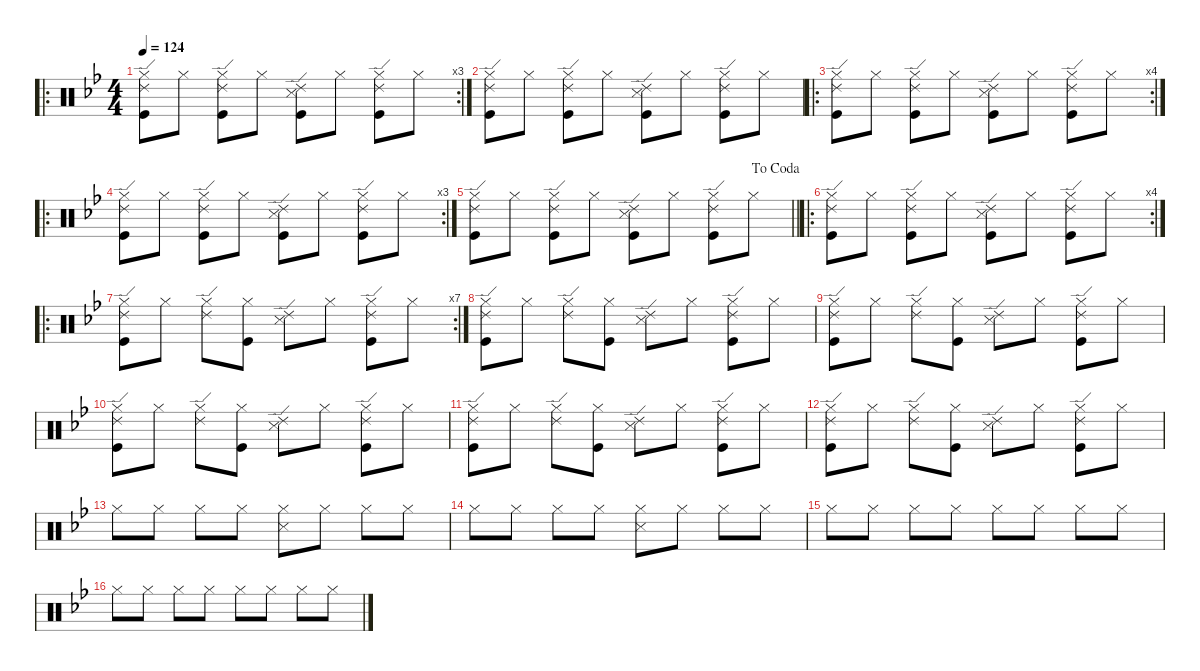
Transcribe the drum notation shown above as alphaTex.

\defaultSystemsLayout 4
\hideDynamics
\bracketExtendMode nobrackets
\singleTrackTrackNamePolicy hidden
\multiTrackTrackNamePolicy hidden
\firstSystemTrackNameMode fullname
\firstSystemTrackNameOrientation horizontal
\otherSystemsTrackNameOrientation horizontal
\track ("Percussion" "drm.") {instrument percussion}
\staff {score}
\articulation defaults
\ro
\rc 3
\ts (4 4)
\tempo 124
\clef neutral
\ks gminor
("Ride (edge) 2"{acc forcenatural} "Hi-Hat (closed)"{acc forcenatural} "Kick (hit)"{acc forcenatural}).8{dy f beam Down} "Hi-Hat (closed)"{acc forcenatural}.8{beam Down} ("Ride (edge) 2"{acc forcenatural} "Hi-Hat (closed)"{acc forcenatural} "Kick (hit)"{acc forcenatural}).8{beam Down} "Hi-Hat (closed)"{acc forcenatural}.8{beam Down} ("Ride (edge) 2"{acc forcenatural} "Snare (side stick) 3"{acc forcenatural} "Kick (hit)"{acc forcenatural}).8{beam Down} "Hi-Hat (closed)"{acc forcenatural}.8{beam Down} ("Ride (edge) 2"{acc forcenatural} "Hi-Hat (closed)"{acc forcenatural} "Kick (hit)"{acc forcenatural}).8{beam Down} "Hi-Hat (closed)"{acc forcenatural}.8{beam Down} |
("Ride (edge) 2"{acc forcenatural} "Hi-Hat (closed)"{acc forcenatural} "Kick (hit)"{acc forcenatural}).8{beam Down} "Hi-Hat (closed)"{acc forcenatural}.8{beam Down} ("Ride (edge) 2"{acc forcenatural} "Hi-Hat (closed)"{acc forcenatural} "Kick (hit)"{acc forcenatural}).8{beam Down} "Hi-Hat (closed)"{acc forcenatural}.8{beam Down} ("Ride (edge) 2"{acc forcenatural} "Snare (side stick) 3"{acc forcenatural} "Kick (hit)"{acc forcenatural}).8{beam Down} "Hi-Hat (closed)"{acc forcenatural}.8{beam Down} ("Ride (edge) 2"{acc forcenatural} "Hi-Hat (closed)"{acc forcenatural} "Kick (hit)"{acc forcenatural}).8{beam Down} "Hi-Hat (closed)"{acc forcenatural}.8{beam Down} |
\ro
\rc 4
("Ride (edge) 2"{acc forcenatural} "Hi-Hat (closed)"{acc forcenatural} "Kick (hit)"{acc forcenatural}).8{beam Down} "Hi-Hat (closed)"{acc forcenatural}.8{beam Down} ("Ride (edge) 2"{acc forcenatural} "Hi-Hat (closed)"{acc forcenatural} "Kick (hit)"{acc forcenatural}).8{beam Down} "Hi-Hat (closed)"{acc forcenatural}.8{beam Down} ("Ride (edge) 2"{acc forcenatural} "Snare (side stick) 3"{acc forcenatural} "Kick (hit)"{acc forcenatural}).8{beam Down} "Hi-Hat (closed)"{acc forcenatural}.8{beam Down} ("Ride (edge) 2"{acc forcenatural} "Hi-Hat (closed)"{acc forcenatural} "Kick (hit)"{acc forcenatural}).8{beam Down} "Hi-Hat (closed)"{acc forcenatural}.8{beam Down} |
\ro
\rc 3
("Ride (edge) 2"{acc forcenatural} "Hi-Hat (closed)"{acc forcenatural} "Kick (hit)"{acc forcenatural}).8{beam Down} "Hi-Hat (closed)"{acc forcenatural}.8{beam Down} ("Ride (edge) 2"{acc forcenatural} "Hi-Hat (closed)"{acc forcenatural} "Kick (hit)"{acc forcenatural}).8{beam Down} "Hi-Hat (closed)"{acc forcenatural}.8{beam Down} ("Ride (edge) 2"{acc forcenatural} "Snare (side stick) 3"{acc forcenatural} "Kick (hit)"{acc forcenatural}).8{beam Down} "Hi-Hat (closed)"{acc forcenatural}.8{beam Down} ("Ride (edge) 2"{acc forcenatural} "Hi-Hat (closed)"{acc forcenatural} "Kick (hit)"{acc forcenatural}).8{beam Down} "Hi-Hat (closed)"{acc forcenatural}.8{beam Down} |
\jump dacoda
\barLineRight lightlight
("Ride (edge) 2"{acc forcenatural} "Hi-Hat (closed)"{acc forcenatural} "Kick (hit)"{acc forcenatural}).8{beam Down} "Hi-Hat (closed)"{acc forcenatural}.8{beam Down} ("Ride (edge) 2"{acc forcenatural} "Hi-Hat (closed)"{acc forcenatural} "Kick (hit)"{acc forcenatural}).8{beam Down} "Hi-Hat (closed)"{acc forcenatural}.8{beam Down} ("Ride (edge) 2"{acc forcenatural} "Snare (side stick) 3"{acc forcenatural} "Kick (hit)"{acc forcenatural}).8{beam Down} "Hi-Hat (closed)"{acc forcenatural}.8{beam Down} ("Ride (edge) 2"{acc forcenatural} "Hi-Hat (closed)"{acc forcenatural} "Kick (hit)"{acc forcenatural}).8{beam Down} "Hi-Hat (closed)"{acc forcenatural}.8{beam Down} |
\ro
\rc 4
("Ride (edge) 2"{acc forcenatural} "Hi-Hat (closed)"{acc forcenatural} "Kick (hit)"{acc forcenatural}).8{beam Down} "Hi-Hat (closed)"{acc forcenatural}.8{beam Down} ("Ride (edge) 2"{acc forcenatural} "Hi-Hat (closed)"{acc forcenatural} "Kick (hit)"{acc forcenatural}).8{beam Down} "Hi-Hat (closed)"{acc forcenatural}.8{beam Down} ("Ride (edge) 2"{acc forcenatural} "Snare (side stick) 3"{acc forcenatural} "Kick (hit)"{acc forcenatural}).8{beam Down} "Hi-Hat (closed)"{acc forcenatural}.8{beam Down} ("Ride (edge) 2"{acc forcenatural} "Hi-Hat (closed)"{acc forcenatural} "Kick (hit)"{acc forcenatural}).8{beam Down} "Hi-Hat (closed)"{acc forcenatural}.8{beam Down} |
\ro
\rc 7
("Ride (edge) 2"{acc forcenatural} "Hi-Hat (closed)"{acc forcenatural} "Kick (hit)"{acc forcenatural}).8{beam Down} "Hi-Hat (closed)"{acc forcenatural}.8{beam Down} ("Ride (edge) 2"{acc forcenatural} "Hi-Hat (closed)"{acc forcenatural}).8{beam Down} ("Hi-Hat (closed)"{acc forcenatural} "Kick (hit)"{acc forcenatural}).8{beam Down} ("Ride (edge) 2"{acc forcenatural} "Snare (side stick) 3"{acc forcenatural}).8{beam Down} "Hi-Hat (closed)"{acc forcenatural}.8{beam Down} ("Ride (edge) 2"{acc forcenatural} "Hi-Hat (closed)"{acc forcenatural} "Kick (hit)"{acc forcenatural}).8{beam Down} "Hi-Hat (closed)"{acc forcenatural}.8{beam Down} |
("Ride (edge) 2"{acc forcenatural} "Hi-Hat (closed)"{acc forcenatural} "Kick (hit)"{acc forcenatural}).8{beam Down} "Hi-Hat (closed)"{acc forcenatural}.8{beam Down} ("Ride (edge) 2"{acc forcenatural} "Hi-Hat (closed)"{acc forcenatural}).8{beam Down} ("Hi-Hat (closed)"{acc forcenatural} "Kick (hit)"{acc forcenatural}).8{beam Down} ("Ride (edge) 2"{acc forcenatural} "Snare (side stick) 3"{acc forcenatural}).8{beam Down} "Hi-Hat (closed)"{acc forcenatural}.8{beam Down} ("Ride (edge) 2"{acc forcenatural} "Hi-Hat (closed)"{acc forcenatural} "Kick (hit)"{acc forcenatural}).8{beam Down} "Hi-Hat (closed)"{acc forcenatural}.8{beam Down} |
("Ride (edge) 2"{acc forcenatural} "Hi-Hat (closed)"{acc forcenatural} "Kick (hit)"{acc forcenatural}).8{beam Down} "Hi-Hat (closed)"{acc forcenatural}.8{beam Down} ("Ride (edge) 2"{acc forcenatural} "Hi-Hat (closed)"{acc forcenatural}).8{beam Down} ("Hi-Hat (closed)"{acc forcenatural} "Kick (hit)"{acc forcenatural}).8{beam Down} ("Ride (edge) 2"{acc forcenatural} "Snare (side stick) 3"{acc forcenatural}).8{beam Down} "Hi-Hat (closed)"{acc forcenatural}.8{beam Down} ("Ride (edge) 2"{acc forcenatural} "Hi-Hat (closed)"{acc forcenatural} "Kick (hit)"{acc forcenatural}).8{beam Down} "Hi-Hat (closed)"{acc forcenatural}.8{beam Down} |
("Ride (edge) 2"{acc forcenatural} "Hi-Hat (closed)"{acc forcenatural} "Kick (hit)"{acc forcenatural}).8{beam Down} "Hi-Hat (closed)"{acc forcenatural}.8{beam Down} ("Ride (edge) 2"{acc forcenatural} "Hi-Hat (closed)"{acc forcenatural}).8{beam Down} ("Hi-Hat (closed)"{acc forcenatural} "Kick (hit)"{acc forcenatural}).8{beam Down} ("Ride (edge) 2"{acc forcenatural} "Snare (side stick) 3"{acc forcenatural}).8{beam Down} "Hi-Hat (closed)"{acc forcenatural}.8{beam Down} ("Ride (edge) 2"{acc forcenatural} "Hi-Hat (closed)"{acc forcenatural} "Kick (hit)"{acc forcenatural}).8{beam Down} "Hi-Hat (closed)"{acc forcenatural}.8{beam Down} |
("Ride (edge) 2"{acc forcenatural} "Hi-Hat (closed)"{acc forcenatural} "Kick (hit)"{acc forcenatural}).8{beam Down} "Hi-Hat (closed)"{acc forcenatural}.8{beam Down} ("Ride (edge) 2"{acc forcenatural} "Hi-Hat (closed)"{acc forcenatural}).8{beam Down} ("Hi-Hat (closed)"{acc forcenatural} "Kick (hit)"{acc forcenatural}).8{beam Down} ("Ride (edge) 2"{acc forcenatural} "Snare (side stick) 3"{acc forcenatural}).8{beam Down} "Hi-Hat (closed)"{acc forcenatural}.8{beam Down} ("Ride (edge) 2"{acc forcenatural} "Hi-Hat (closed)"{acc forcenatural} "Kick (hit)"{acc forcenatural}).8{beam Down} "Hi-Hat (closed)"{acc forcenatural}.8{beam Down} |
("Ride (edge) 2"{acc forcenatural} "Hi-Hat (closed)"{acc forcenatural} "Kick (hit)"{acc forcenatural}).8{beam Down} "Hi-Hat (closed)"{acc forcenatural}.8{beam Down} ("Ride (edge) 2"{acc forcenatural} "Hi-Hat (closed)"{acc forcenatural}).8{beam Down} ("Hi-Hat (closed)"{acc forcenatural} "Kick (hit)"{acc forcenatural}).8{beam Down} ("Ride (edge) 2"{acc forcenatural} "Snare (side stick) 3"{acc forcenatural}).8{beam Down} "Hi-Hat (closed)"{acc forcenatural}.8{beam Down} ("Ride (edge) 2"{acc forcenatural} "Hi-Hat (closed)"{acc forcenatural} "Kick (hit)"{acc forcenatural}).8{beam Down} "Hi-Hat (closed)"{acc forcenatural}.8{beam Down} |
"Hi-Hat (closed)"{acc forcenatural}.8{beam Down} "Hi-Hat (closed)"{acc forcenatural}.8{beam Down} "Hi-Hat (closed)"{acc forcenatural}.8{beam Down} "Hi-Hat (closed)"{acc forcenatural}.8{beam Down} ("Hi-Hat (closed)"{acc forcenatural} "Snare (side stick) 3"{acc forcenatural}).8{beam Down} "Hi-Hat (closed)"{acc forcenatural}.8{beam Down} "Hi-Hat (closed)"{acc forcenatural}.8{beam Down} "Hi-Hat (closed)"{acc forcenatural}.8{beam Down} |
"Hi-Hat (closed)"{acc forcenatural}.8{beam Down} "Hi-Hat (closed)"{acc forcenatural}.8{beam Down} "Hi-Hat (closed)"{acc forcenatural}.8{beam Down} "Hi-Hat (closed)"{acc forcenatural}.8{beam Down} ("Hi-Hat (closed)"{acc forcenatural} "Snare (side stick) 3"{acc forcenatural}).8{beam Down} "Hi-Hat (closed)"{acc forcenatural}.8{beam Down} "Hi-Hat (closed)"{acc forcenatural}.8{beam Down} "Hi-Hat (closed)"{acc forcenatural}.8{beam Down} |
"Hi-Hat (closed)"{acc forcenatural}.8{beam Down} "Hi-Hat (closed)"{acc forcenatural}.8{beam Down} "Hi-Hat (closed)"{acc forcenatural}.8{beam Down} "Hi-Hat (closed)"{acc forcenatural}.8{beam Down} "Hi-Hat (closed)"{acc forcenatural}.8{beam Down} "Hi-Hat (closed)"{acc forcenatural}.8{beam Down} "Hi-Hat (closed)"{acc forcenatural}.8{beam Down} "Hi-Hat (closed)"{acc forcenatural}.8{beam Down} |
"Hi-Hat (closed)"{acc forcenatural}.8{beam Down} "Hi-Hat (closed)"{acc forcenatural}.8{beam Down} "Hi-Hat (closed)"{acc forcenatural}.8{beam Down} "Hi-Hat (closed)"{acc forcenatural}.8{beam Down} "Hi-Hat (closed)"{acc forcenatural}.8{beam Down} "Hi-Hat (closed)"{acc forcenatural}.8{beam Down} "Hi-Hat (closed)"{acc forcenatural}.8{beam Down} "Hi-Hat (closed)"{acc forcenatural}.8{beam Down}
